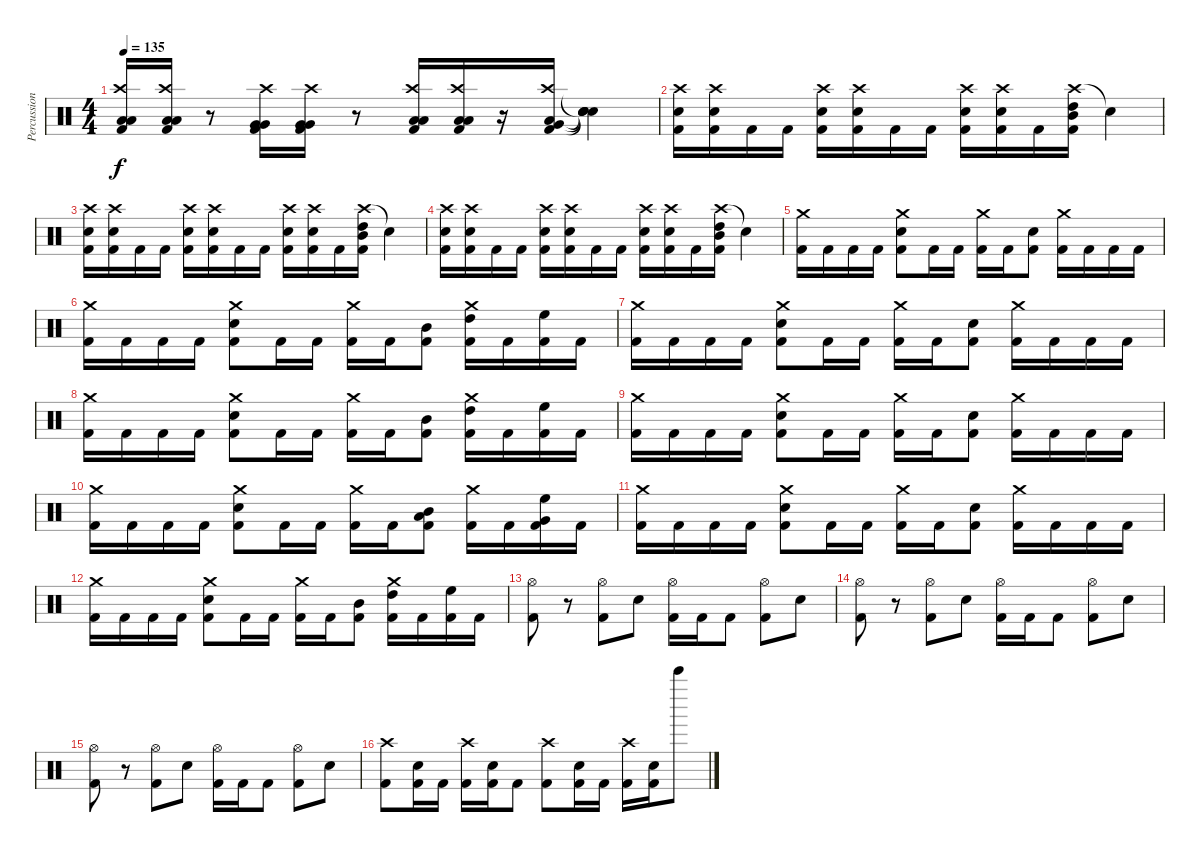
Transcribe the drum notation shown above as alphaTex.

\track ("Percussion" "Percussion") {instrument percussion}
\staff {score}
\articulation defaults
\ts (4 4)
\tempo 135
\clef neutral
\ks c
("Low Floor Tom (hit)" "Crash high (hit)" "Low Floor Tom (hit)" "Kick (hit) 2").16{dy f} ("Low Floor Tom (hit)" "Crash high (hit)" "Low Floor Tom (hit)" "Kick (hit) 2").16 r.8 ("Very Low Tom (hit)" "Crash high (hit)" "Very Low Tom (hit)" "Kick (hit) 2").16 ("Very Low Tom (hit)" "Crash high (hit)" "Very Low Tom (hit)" "Kick (hit) 2").16 r.8 ("Low Floor Tom (hit)" "Crash high (hit)" "Low Floor Tom (hit)" "Kick (hit) 2").16 ("Low Floor Tom (hit)" "Crash high (hit)" "Low Floor Tom (hit)" "Kick (hit) 2").16 r.16 ("Crash high (hit)" "Very Low Tom (hit)" "Low Floor Tom (hit)" "Kick (hit) 2").16 ("Snare (hit)"{t} "Snare (hit)"{t} "Snare (hit)"{t} "Snare (hit)"{t}).4 |
("Crash high (hit)" "Electric Snare (hit)" "Kick (hit) 2").16 ("Crash high (hit)" "Electric Snare (hit)" "Kick (hit) 2").16 "Kick (hit) 2".16 "Kick (hit) 2".16 ("Crash high (hit)" "Electric Snare (hit)" "Kick (hit) 2").16 ("Crash high (hit)" "Electric Snare (hit)" "Kick (hit) 2").16 "Kick (hit) 2".16 "Kick (hit) 2".16 ("Crash high (hit)" "Electric Snare (hit)" "Kick (hit) 2").16 ("Crash high (hit)" "Electric Snare (hit)" "Kick (hit) 2").16 "Kick (hit) 2".16 ("Crash high (hit)" "High Tom (hit)" "Mid Tom (hit)" "Kick (hit) 2").16 "Snare (hit)"{t}.4 |
("Crash high (hit)" "Electric Snare (hit)" "Kick (hit) 2").16 ("Crash high (hit)" "Electric Snare (hit)" "Kick (hit) 2").16 "Kick (hit) 2".16 "Kick (hit) 2".16 ("Crash high (hit)" "Electric Snare (hit)" "Kick (hit) 2").16 ("Crash high (hit)" "Electric Snare (hit)" "Kick (hit) 2").16 "Kick (hit) 2".16 "Kick (hit) 2".16 ("Crash high (hit)" "Electric Snare (hit)" "Kick (hit) 2").16 ("Crash high (hit)" "Electric Snare (hit)" "Kick (hit) 2").16 "Kick (hit) 2".16 ("Crash high (hit)" "High Tom (hit)" "Mid Tom (hit)" "Kick (hit) 2").16 "Snare (hit)"{t}.4 |
("Crash high (hit)" "Electric Snare (hit)" "Kick (hit) 2").16 ("Crash high (hit)" "Electric Snare (hit)" "Kick (hit) 2").16 "Kick (hit) 2".16 "Kick (hit) 2".16 ("Crash high (hit)" "Electric Snare (hit)" "Kick (hit) 2").16 ("Crash high (hit)" "Electric Snare (hit)" "Kick (hit) 2").16 "Kick (hit) 2".16 "Kick (hit) 2".16 ("Crash high (hit)" "Electric Snare (hit)" "Kick (hit) 2").16 ("Crash high (hit)" "Electric Snare (hit)" "Kick (hit) 2").16 "Kick (hit) 2".16 ("Crash high (hit)" "High Tom (hit)" "Mid Tom (hit)" "Kick (hit) 2").16 "Snare (hit)"{t}.4 |
("Crash medium (hit)" "Kick (hit) 2").16 "Kick (hit) 2".16 "Kick (hit) 2".16 "Kick (hit) 2".16 ("Crash medium (hit)" "Snare (hit) 2" "Kick (hit) 2").8 "Kick (hit) 2".16 "Kick (hit) 2".16 ("Crash medium (hit)" "Kick (hit) 2").16 "Kick (hit) 2".16 ("Snare (hit) 2" "Kick (hit) 2").8 ("Crash medium (hit)" "Kick (hit) 2").16 "Kick (hit) 2".16 "Kick (hit) 2".16 "Kick (hit) 2".16 |
("Crash medium (hit)" "Kick (hit) 2").16 "Kick (hit) 2".16 "Kick (hit) 2".16 "Kick (hit) 2".16 ("Crash medium (hit)" "Snare (hit) 2" "Kick (hit) 2").8 "Kick (hit) 2".16 "Kick (hit) 2".16 ("Crash medium (hit)" "Kick (hit) 2").16 "Kick (hit) 2".16 ("Mid Tom (hit)" "Kick (hit) 2").8 ("Crash medium (hit)" "High Tom (hit)" "Kick (hit) 2").16 "Kick (hit) 2".16 ("High Floor Tom (hit)" "Kick (hit) 2").16 "Kick (hit) 2".16 |
("Crash medium (hit)" "Kick (hit) 2").16 "Kick (hit) 2".16 "Kick (hit) 2".16 "Kick (hit) 2".16 ("Crash medium (hit)" "Snare (hit) 2" "Kick (hit) 2").8 "Kick (hit) 2".16 "Kick (hit) 2".16 ("Crash medium (hit)" "Kick (hit) 2").16 "Kick (hit) 2".16 ("Snare (hit) 2" "Kick (hit) 2").8 ("Crash medium (hit)" "Kick (hit) 2").16 "Kick (hit) 2".16 "Kick (hit) 2".16 "Kick (hit) 2".16 |
("Crash medium (hit)" "Kick (hit) 2").16 "Kick (hit) 2".16 "Kick (hit) 2".16 "Kick (hit) 2".16 ("Crash medium (hit)" "Snare (hit) 2" "Kick (hit) 2").8 "Kick (hit) 2".16 "Kick (hit) 2".16 ("Crash medium (hit)" "Kick (hit) 2").16 "Kick (hit) 2".16 ("Mid Tom (hit)" "Kick (hit) 2").8 ("Crash medium (hit)" "High Tom (hit)" "Kick (hit) 2").16 "Kick (hit) 2".16 ("High Floor Tom (hit)" "Kick (hit) 2").16 "Kick (hit) 2".16 |
("Crash medium (hit)" "Kick (hit) 2").16 "Kick (hit) 2".16 "Kick (hit) 2".16 "Kick (hit) 2".16 ("Crash medium (hit)" "Snare (hit) 2" "Kick (hit) 2").8 "Kick (hit) 2".16 "Kick (hit) 2".16 ("Crash medium (hit)" "Kick (hit) 2").16 "Kick (hit) 2".16 ("Snare (hit) 2" "Kick (hit) 2").8 ("Crash medium (hit)" "Kick (hit) 2").16 "Kick (hit) 2".16 "Kick (hit) 2".16 "Kick (hit) 2".16 |
("Crash medium (hit)" "Kick (hit) 2").16 "Kick (hit) 2".16 "Kick (hit) 2".16 "Kick (hit) 2".16 ("Crash medium (hit)" "Snare (hit) 2" "Kick (hit) 2").8 "Kick (hit) 2".16 "Kick (hit) 2".16 ("Crash medium (hit)" "Kick (hit) 2").16 "Kick (hit) 2".16 ("Low Floor Tom (hit)" "Mid Tom (hit)" "Kick (hit) 2").8 ("Crash medium (hit)" "Kick (hit) 2").16 "Kick (hit) 2".16 ("Very Low Tom (hit)" "High Floor Tom (hit)" "Kick (hit) 2").16 "Kick (hit) 2".16 |
("Crash medium (hit)" "Kick (hit) 2").16 "Kick (hit) 2".16 "Kick (hit) 2".16 "Kick (hit) 2".16 ("Crash medium (hit)" "Snare (hit) 2" "Kick (hit) 2").8 "Kick (hit) 2".16 "Kick (hit) 2".16 ("Crash medium (hit)" "Kick (hit) 2").16 "Kick (hit) 2".16 ("Snare (hit) 2" "Kick (hit) 2").8 ("Crash medium (hit)" "Kick (hit) 2").16 "Kick (hit) 2".16 "Kick (hit) 2".16 "Kick (hit) 2".16 |
("Crash medium (hit)" "Kick (hit) 2").16 "Kick (hit) 2".16 "Kick (hit) 2".16 "Kick (hit) 2".16 ("Crash medium (hit)" "Snare (hit) 2" "Kick (hit) 2").8 "Kick (hit) 2".16 "Kick (hit) 2".16 ("Crash medium (hit)" "Kick (hit) 2").16 "Kick (hit) 2".16 ("Mid Tom (hit)" "Kick (hit) 2").8 ("Crash medium (hit)" "High Tom (hit)" "Kick (hit) 2").16 "Kick (hit) 2".16 ("High Floor Tom (hit)" "Kick (hit) 2").16 "Kick (hit) 2".16 |
("Hi-Hat (open)" "Kick (hit) 2").8 r.8 ("Hi-Hat (open)" "Kick (hit) 2").8 "Snare (hit) 2".8 ("Hi-Hat (open)" "Kick (hit) 2").16 "Kick (hit) 2".16 "Kick (hit) 2".8 ("Hi-Hat (open)" "Kick (hit) 2").8 "Snare (hit) 2".8 |
("Hi-Hat (open)" "Kick (hit) 2").8 r.8 ("Hi-Hat (open)" "Kick (hit) 2").8 "Snare (hit) 2".8 ("Hi-Hat (open)" "Kick (hit) 2").16 "Kick (hit) 2".16 "Kick (hit) 2".8 ("Hi-Hat (open)" "Kick (hit) 2").8 "Snare (hit) 2".8 |
("Hi-Hat (open)" "Kick (hit) 2").8 r.8 ("Hi-Hat (open)" "Kick (hit) 2").8 "Snare (hit) 2".8 ("Hi-Hat (open)" "Kick (hit) 2").16 "Kick (hit) 2".16 "Kick (hit) 2".8 ("Hi-Hat (open)" "Kick (hit) 2").8 "Snare (hit) 2".8 |
("Crash high (hit)" "Kick (hit) 2").8 ("Snare (hit) 2" "Kick (hit) 2").16 "Kick (hit) 2".16 ("Crash high (hit)" "Kick (hit) 2").16 ("Snare (hit) 2" "Kick (hit) 2").16 "Kick (hit) 2".8 ("Crash high (hit)" "Kick (hit) 2").8 ("Snare (hit) 2" "Kick (hit) 2").16 "Kick (hit) 2".16 ("Crash high (hit)" "Kick (hit) 2").16 ("Snare (hit) 2" "Kick (hit) 2").16 "Bell Tree (hit)".8
